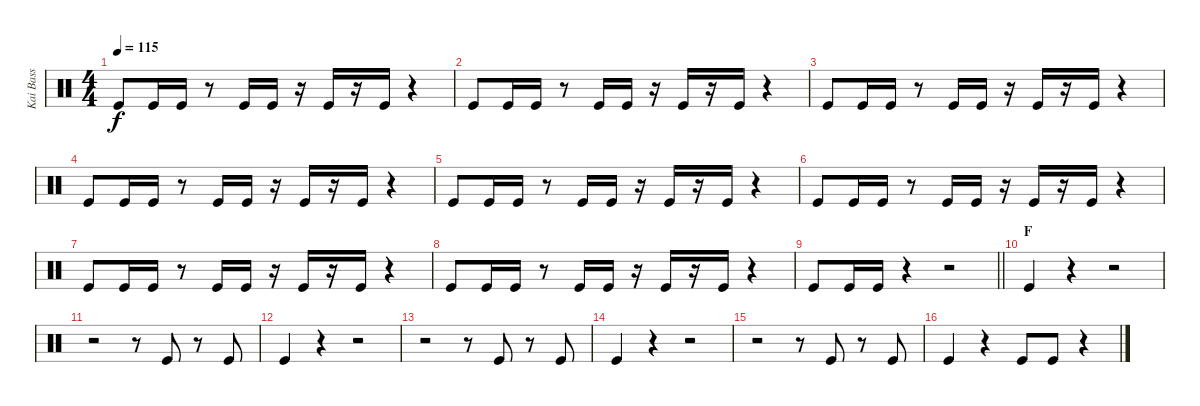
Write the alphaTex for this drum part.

\track ("Kai Bass" "Kai Bass") {instrument percussion}
\staff {score}
\articulation defaults
\ts (4 4)
\tempo 115
\clef neutral
\ks c "Kick (hit)".8{dy f} "Kick (hit)".16 "Kick (hit)".16
r.8 "Kick (hit)".16 "Kick (hit)".16 r.16 "Kick (hit)".16 r.16 "Kick (hit)".16 r.4 |
"Kick (hit)".8 "Kick (hit)".16 "Kick (hit)".16 r.8 "Kick (hit)".16 "Kick (hit)".16 r.16 "Kick (hit)".16 r.16 "Kick (hit)".16 r.4 |
"Kick (hit)".8 "Kick (hit)".16 "Kick (hit)".16 r.8 "Kick (hit)".16 "Kick (hit)".16 r.16 "Kick (hit)".16 r.16 "Kick (hit)".16 r.4 |
"Kick (hit)".8 "Kick (hit)".16 "Kick (hit)".16 r.8 "Kick (hit)".16 "Kick (hit)".16 r.16 "Kick (hit)".16 r.16 "Kick (hit)".16 r.4 |
"Kick (hit)".8 "Kick (hit)".16 "Kick (hit)".16 r.8 "Kick (hit)".16 "Kick (hit)".16 r.16 "Kick (hit)".16 r.16 "Kick (hit)".16 r.4 |
"Kick (hit)".8 "Kick (hit)".16 "Kick (hit)".16 r.8 "Kick (hit)".16 "Kick (hit)".16 r.16 "Kick (hit)".16 r.16 "Kick (hit)".16 r.4 |
"Kick (hit)".8 "Kick (hit)".16 "Kick (hit)".16 r.8 "Kick (hit)".16 "Kick (hit)".16 r.16 "Kick (hit)".16 r.16 "Kick (hit)".16 r.4 |
"Kick (hit)".8 "Kick (hit)".16 "Kick (hit)".16 r.8 "Kick (hit)".16 "Kick (hit)".16 r.16 "Kick (hit)".16 r.16 "Kick (hit)".16 r.4 |
\barLineRight lightlight "Kick (hit)".8 "Kick (hit)".16 "Kick (hit)".16
r.4 r.2 |
\section ("" "F")
"Kick (hit)".4 r.4 r.2 |
r.2 r.8 "Kick (hit)".8 r.8 "Kick (hit)".8 |
"Kick (hit)".4 r.4 r.2 |
r.2 r.8 "Kick (hit)".8 r.8 "Kick (hit)".8 |
"Kick (hit)".4 r.4 r.2 |
r.2 r.8 "Kick (hit)".8 r.8 "Kick (hit)".8 |
"Kick (hit)".4 r.4 "Kick (hit)".8 "Kick (hit)".8 r.4
